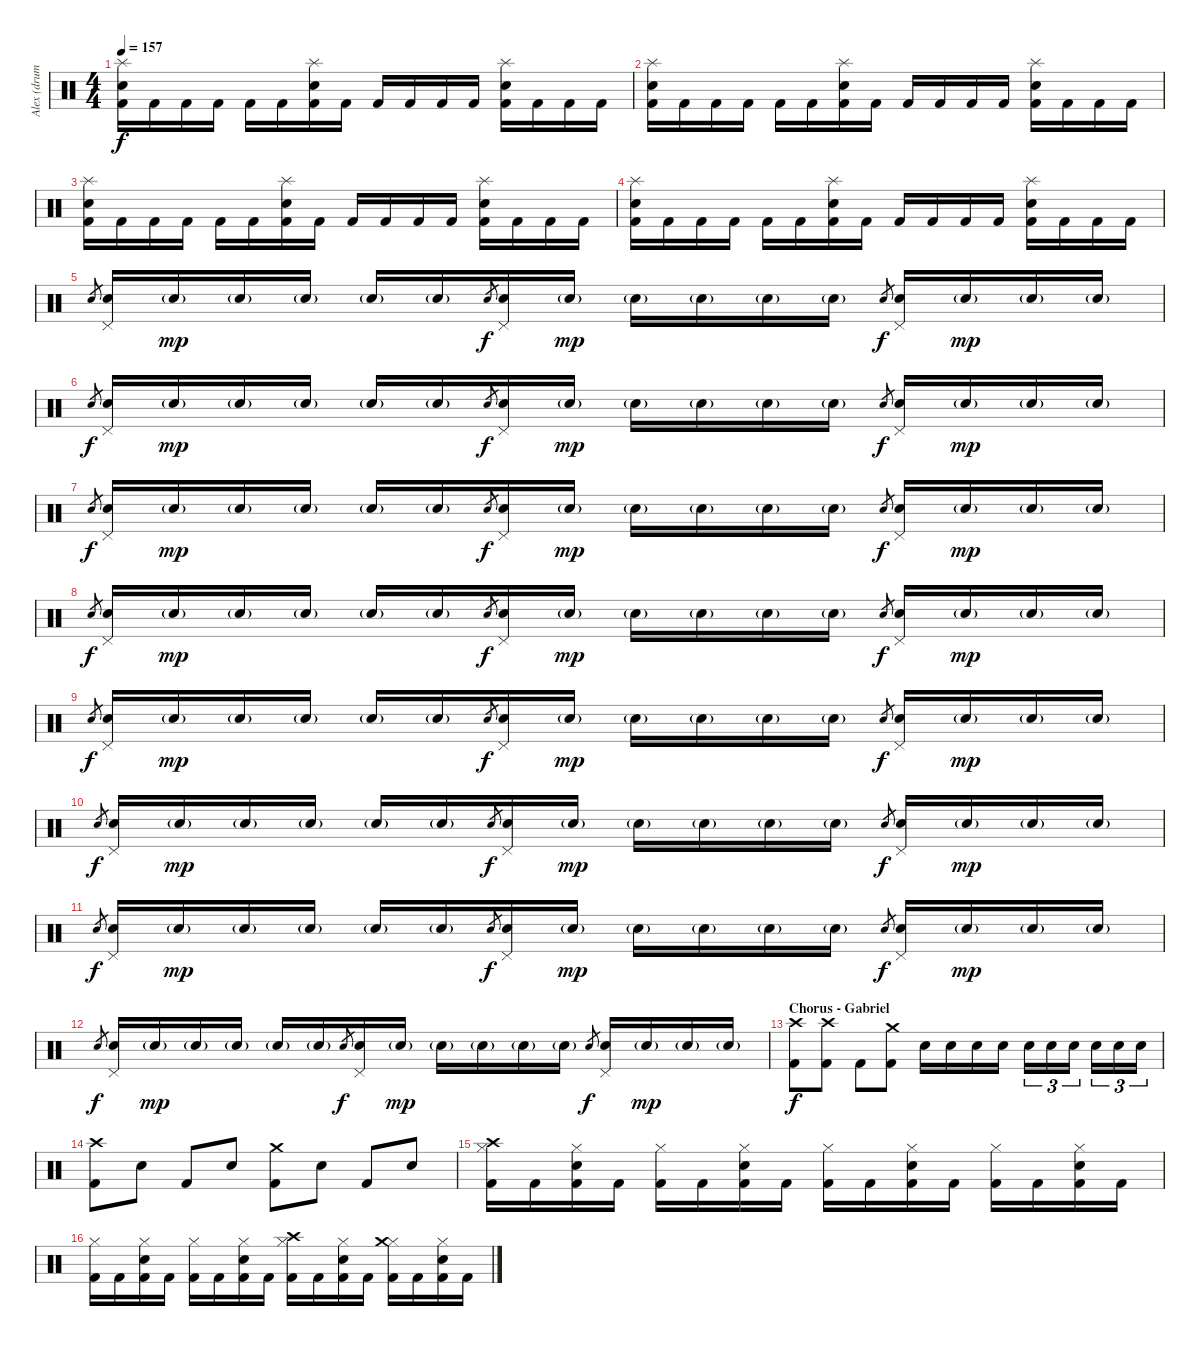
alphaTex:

\track ("Alex (drums)" "Alex (drum") {instrument percussion}
\staff {score}
\articulation defaults
\ts (4 4)
\tempo 157
\clef neutral
\ks c
("Snare (hit) 2" "Kick (hit) 2" "Splash (hit)").16{dy f} "Kick (hit) 2".16 "Kick (hit) 2".16 "Kick (hit) 2".16 "Kick (hit) 2".16 "Kick (hit) 2".16 ("Snare (hit) 2" "Kick (hit) 2" "Splash (hit)").16 "Kick (hit) 2".16 "Kick (hit) 2".16 "Kick (hit) 2".16 "Kick (hit) 2".16 "Kick (hit) 2".16 ("Snare (hit) 2" "Kick (hit) 2" "Splash (hit)").16 "Kick (hit) 2".16 "Kick (hit) 2".16 "Kick (hit) 2".16 |
("Snare (hit) 2" "Kick (hit) 2" "Splash (hit)").16 "Kick (hit) 2".16 "Kick (hit) 2".16 "Kick (hit) 2".16 "Kick (hit) 2".16 "Kick (hit) 2".16 ("Snare (hit) 2" "Kick (hit) 2" "Splash (hit)").16 "Kick (hit) 2".16 "Kick (hit) 2".16 "Kick (hit) 2".16 "Kick (hit) 2".16 "Kick (hit) 2".16 ("Snare (hit) 2" "Kick (hit) 2" "Splash (hit)").16 "Kick (hit) 2".16 "Kick (hit) 2".16 "Kick (hit) 2".16 |
("Snare (hit) 2" "Kick (hit) 2" "Splash (hit)").16 "Kick (hit) 2".16 "Kick (hit) 2".16 "Kick (hit) 2".16 "Kick (hit) 2".16 "Kick (hit) 2".16 ("Snare (hit) 2" "Kick (hit) 2" "Splash (hit)").16 "Kick (hit) 2".16 "Kick (hit) 2".16 "Kick (hit) 2".16 "Kick (hit) 2".16 "Kick (hit) 2".16 ("Snare (hit) 2" "Kick (hit) 2" "Splash (hit)").16 "Kick (hit) 2".16 "Kick (hit) 2".16 "Kick (hit) 2".16 |
("Snare (hit) 2" "Kick (hit) 2" "Splash (hit)").16 "Kick (hit) 2".16 "Kick (hit) 2".16 "Kick (hit) 2".16 "Kick (hit) 2".16 "Kick (hit) 2".16 ("Snare (hit) 2" "Kick (hit) 2" "Splash (hit)").16 "Kick (hit) 2".16 "Kick (hit) 2".16 "Kick (hit) 2".16 "Kick (hit) 2".16 "Kick (hit) 2".16 ("Snare (hit) 2" "Kick (hit) 2" "Splash (hit)").16 "Kick (hit) 2".16 "Kick (hit) 2".16 "Kick (hit) 2".16 |
"Snare (hit) 2".8{gr} ("Pedal Hi-Hat (hit)" "Snare (hit) 2").16 "Snare (hit) 2"{g}.16{dy mp} "Snare (hit) 2"{g}.16 "Snare (hit) 2"{g}.16 "Snare (hit) 2"{g}.16 "Snare (hit) 2"{g}.16 "Snare (hit) 2".8{gr dy f} ("Pedal Hi-Hat (hit)" "Snare (hit) 2").16 "Snare (hit) 2"{g}.16{dy mp} "Snare (hit) 2"{g}.16 "Snare (hit) 2"{g}.16 "Snare (hit) 2"{g}.16 "Snare (hit) 2"{g}.16 "Snare (hit) 2".8{gr dy f} ("Pedal Hi-Hat (hit)" "Snare (hit) 2").16 "Snare (hit) 2"{g}.16{dy mp} "Snare (hit) 2"{g}.16 "Snare (hit) 2"{g}.16 |
"Snare (hit) 2".8{gr dy f} ("Pedal Hi-Hat (hit)" "Snare (hit) 2").16 "Snare (hit) 2"{g}.16{dy mp} "Snare (hit) 2"{g}.16 "Snare (hit) 2"{g}.16 "Snare (hit) 2"{g}.16 "Snare (hit) 2"{g}.16 "Snare (hit) 2".8{gr dy f} ("Pedal Hi-Hat (hit)" "Snare (hit) 2").16 "Snare (hit) 2"{g}.16{dy mp} "Snare (hit) 2"{g}.16 "Snare (hit) 2"{g}.16 "Snare (hit) 2"{g}.16 "Snare (hit) 2"{g}.16 "Snare (hit) 2".8{gr dy f} ("Pedal Hi-Hat (hit)" "Snare (hit) 2").16 "Snare (hit) 2"{g}.16{dy mp} "Snare (hit) 2"{g}.16 "Snare (hit) 2"{g}.16 |
"Snare (hit) 2".8{gr dy f} ("Pedal Hi-Hat (hit)" "Snare (hit) 2").16 "Snare (hit) 2"{g}.16{dy mp} "Snare (hit) 2"{g}.16 "Snare (hit) 2"{g}.16 "Snare (hit) 2"{g}.16 "Snare (hit) 2"{g}.16 "Snare (hit) 2".8{gr dy f} ("Pedal Hi-Hat (hit)" "Snare (hit) 2").16 "Snare (hit) 2"{g}.16{dy mp} "Snare (hit) 2"{g}.16 "Snare (hit) 2"{g}.16 "Snare (hit) 2"{g}.16 "Snare (hit) 2"{g}.16 "Snare (hit) 2".8{gr dy f} ("Pedal Hi-Hat (hit)" "Snare (hit) 2").16 "Snare (hit) 2"{g}.16{dy mp} "Snare (hit) 2"{g}.16 "Snare (hit) 2"{g}.16 |
"Snare (hit) 2".8{gr dy f} ("Pedal Hi-Hat (hit)" "Snare (hit) 2").16 "Snare (hit) 2"{g}.16{dy mp} "Snare (hit) 2"{g}.16 "Snare (hit) 2"{g}.16 "Snare (hit) 2"{g}.16 "Snare (hit) 2"{g}.16 "Snare (hit) 2".8{gr dy f} ("Pedal Hi-Hat (hit)" "Snare (hit) 2").16 "Snare (hit) 2"{g}.16{dy mp} "Snare (hit) 2"{g}.16 "Snare (hit) 2"{g}.16 "Snare (hit) 2"{g}.16 "Snare (hit) 2"{g}.16 "Snare (hit) 2".8{gr dy f} ("Pedal Hi-Hat (hit)" "Snare (hit) 2").16 "Snare (hit) 2"{g}.16{dy mp} "Snare (hit) 2"{g}.16 "Snare (hit) 2"{g}.16 |
"Snare (hit) 2".8{gr dy f} ("Pedal Hi-Hat (hit)" "Snare (hit) 2").16 "Snare (hit) 2"{g}.16{dy mp} "Snare (hit) 2"{g}.16 "Snare (hit) 2"{g}.16 "Snare (hit) 2"{g}.16 "Snare (hit) 2"{g}.16 "Snare (hit) 2".8{gr dy f} ("Pedal Hi-Hat (hit)" "Snare (hit) 2").16 "Snare (hit) 2"{g}.16{dy mp} "Snare (hit) 2"{g}.16 "Snare (hit) 2"{g}.16 "Snare (hit) 2"{g}.16 "Snare (hit) 2"{g}.16 "Snare (hit) 2".8{gr dy f} ("Pedal Hi-Hat (hit)" "Snare (hit) 2").16 "Snare (hit) 2"{g}.16{dy mp} "Snare (hit) 2"{g}.16 "Snare (hit) 2"{g}.16 |
"Snare (hit) 2".8{gr dy f} ("Pedal Hi-Hat (hit)" "Snare (hit) 2").16 "Snare (hit) 2"{g}.16{dy mp} "Snare (hit) 2"{g}.16 "Snare (hit) 2"{g}.16 "Snare (hit) 2"{g}.16 "Snare (hit) 2"{g}.16 "Snare (hit) 2".8{gr dy f} ("Pedal Hi-Hat (hit)" "Snare (hit) 2").16 "Snare (hit) 2"{g}.16{dy mp} "Snare (hit) 2"{g}.16 "Snare (hit) 2"{g}.16 "Snare (hit) 2"{g}.16 "Snare (hit) 2"{g}.16 "Snare (hit) 2".8{gr dy f} ("Pedal Hi-Hat (hit)" "Snare (hit) 2").16 "Snare (hit) 2"{g}.16{dy mp} "Snare (hit) 2"{g}.16 "Snare (hit) 2"{g}.16 |
"Snare (hit) 2".8{gr dy f} ("Pedal Hi-Hat (hit)" "Snare (hit) 2").16 "Snare (hit) 2"{g}.16{dy mp} "Snare (hit) 2"{g}.16 "Snare (hit) 2"{g}.16 "Snare (hit) 2"{g}.16 "Snare (hit) 2"{g}.16 "Snare (hit) 2".8{gr dy f} ("Pedal Hi-Hat (hit)" "Snare (hit) 2").16 "Snare (hit) 2"{g}.16{dy mp} "Snare (hit) 2"{g}.16 "Snare (hit) 2"{g}.16 "Snare (hit) 2"{g}.16 "Snare (hit) 2"{g}.16 "Snare (hit) 2".8{gr dy f} ("Pedal Hi-Hat (hit)" "Snare (hit) 2").16 "Snare (hit) 2"{g}.16{dy mp} "Snare (hit) 2"{g}.16 "Snare (hit) 2"{g}.16 |
"Snare (hit) 2".8{gr dy f} ("Pedal Hi-Hat (hit)" "Snare (hit) 2").16 "Snare (hit) 2"{g}.16{dy mp} "Snare (hit) 2"{g}.16 "Snare (hit) 2"{g}.16 "Snare (hit) 2"{g}.16 "Snare (hit) 2"{g}.16 "Snare (hit) 2".8{gr dy f} ("Pedal Hi-Hat (hit)" "Snare (hit) 2").16 "Snare (hit) 2"{g}.16{dy mp} "Snare (hit) 2"{g}.16 "Snare (hit) 2"{g}.16 "Snare (hit) 2"{g}.16 "Snare (hit) 2"{g}.16 "Snare (hit) 2".8{gr dy f} ("Pedal Hi-Hat (hit)" "Snare (hit) 2").16 "Snare (hit) 2"{g}.16{dy mp} "Snare (hit) 2"{g}.16 "Snare (hit) 2"{g}.16 |
\section ("" "Chorus - Gabriel")
("Kick (hit) 2" "Crash high (hit)").8{dy f} ("Kick (hit) 2" "Crash high (hit)").8 "Kick (hit) 2".8 ("Kick (hit) 2" "Crash medium (hit)").8 "Snare (hit) 2".16 "Snare (hit) 2".16 "Snare (hit) 2".16 "Snare (hit) 2".16 "Snare (hit) 2".16{tu (3 2)} "Snare (hit) 2".16{tu (3 2)} "Snare (hit) 2".16{tu (3 2)} "Snare (hit) 2".16{tu (3 2)} "Snare (hit) 2".16{tu (3 2)} "Snare (hit) 2".16{tu (3 2)} |
("Kick (hit) 2" "Crash high (hit)").8 "Snare (hit) 2".8 "Kick (hit) 2".8 "Snare (hit) 2".8 ("Kick (hit) 2" "Crash medium (hit)").8 "Snare (hit) 2".8 "Kick (hit) 2".8 "Snare (hit) 2".8 |
("Hi-Hat (closed)" "Kick (hit) 2" "Crash high (hit)").16 "Kick (hit) 2".16 ("Hi-Hat (closed)" "Snare (hit) 2" "Kick (hit) 2").16 "Kick (hit) 2".16 ("Hi-Hat (closed)" "Kick (hit) 2").16 "Kick (hit) 2".16 ("Hi-Hat (closed)" "Snare (hit) 2" "Kick (hit) 2").16 "Kick (hit) 2".16 ("Hi-Hat (closed)" "Kick (hit) 2").16 "Kick (hit) 2".16 ("Hi-Hat (closed)" "Snare (hit) 2" "Kick (hit) 2").16 "Kick (hit) 2".16 ("Hi-Hat (closed)" "Kick (hit) 2").16 "Kick (hit) 2".16 ("Hi-Hat (closed)" "Snare (hit) 2" "Kick (hit) 2").16 "Kick (hit) 2".16 |
("Hi-Hat (closed)" "Kick (hit) 2").16 "Kick (hit) 2".16 ("Hi-Hat (closed)" "Snare (hit) 2" "Kick (hit) 2").16 "Kick (hit) 2".16 ("Hi-Hat (closed)" "Kick (hit) 2").16 "Kick (hit) 2".16 ("Hi-Hat (closed)" "Snare (hit) 2" "Kick (hit) 2").16 "Kick (hit) 2".16 ("Hi-Hat (closed)" "Kick (hit) 2" "Crash high (hit)").16 "Kick (hit) 2".16 ("Hi-Hat (closed)" "Snare (hit) 2" "Kick (hit) 2").16 "Kick (hit) 2".16 ("Hi-Hat (closed)" "Kick (hit) 2" "Crash medium (hit)").16 "Kick (hit) 2".16 ("Hi-Hat (closed)" "Snare (hit) 2" "Kick (hit) 2").16 "Kick (hit) 2".16
